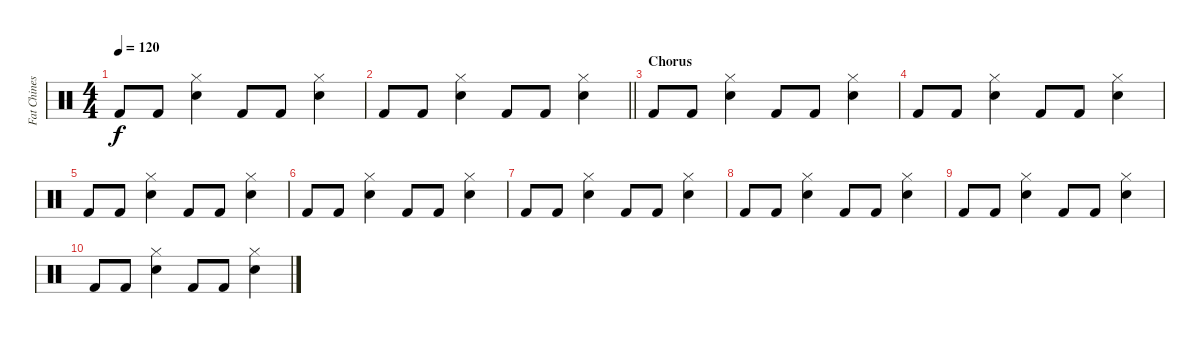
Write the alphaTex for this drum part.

\track ("Fat Chinese Drummer" "Fat Chines") {instrument percussion}
\staff {score}
\articulation defaults
\ts (4 4)
\tempo 120
\clef neutral
\ks c "Kick (hit) 2".8{dy f} "Kick (hit) 2".8
("Hi-Hat (closed)" "Electric Snare (hit)").4 "Kick (hit) 2".8 "Kick (hit) 2".8 ("Hi-Hat (closed)" "Electric Snare (hit)").4 |
\barLineRight lightlight "Kick (hit) 2".8 "Kick (hit) 2".8
("Hi-Hat (closed)" "Electric Snare (hit)").4 "Kick (hit) 2".8 "Kick (hit) 2".8 ("Hi-Hat (closed)" "Electric Snare (hit)").4 |
\section ("" "Chorus")
"Kick (hit) 2".8 "Kick (hit) 2".8 ("Hi-Hat (closed)" "Electric Snare (hit)").4 "Kick (hit) 2".8 "Kick (hit) 2".8 ("Hi-Hat (closed)" "Electric Snare (hit)").4 |
"Kick (hit) 2".8 "Kick (hit) 2".8 ("Hi-Hat (closed)" "Electric Snare (hit)").4 "Kick (hit) 2".8 "Kick (hit) 2".8 ("Hi-Hat (closed)" "Electric Snare (hit)").4 |
"Kick (hit) 2".8 "Kick (hit) 2".8 ("Hi-Hat (closed)" "Electric Snare (hit)").4 "Kick (hit) 2".8 "Kick (hit) 2".8 ("Hi-Hat (closed)" "Electric Snare (hit)").4 |
"Kick (hit) 2".8 "Kick (hit) 2".8 ("Hi-Hat (closed)" "Electric Snare (hit)").4 "Kick (hit) 2".8 "Kick (hit) 2".8 ("Hi-Hat (closed)" "Electric Snare (hit)").4 |
"Kick (hit) 2".8 "Kick (hit) 2".8 ("Hi-Hat (closed)" "Electric Snare (hit)").4 "Kick (hit) 2".8 "Kick (hit) 2".8 ("Hi-Hat (closed)" "Electric Snare (hit)").4 |
"Kick (hit) 2".8 "Kick (hit) 2".8 ("Hi-Hat (closed)" "Electric Snare (hit)").4 "Kick (hit) 2".8 "Kick (hit) 2".8 ("Hi-Hat (closed)" "Electric Snare (hit)").4 |
"Kick (hit) 2".8 "Kick (hit) 2".8 ("Hi-Hat (closed)" "Electric Snare (hit)").4 "Kick (hit) 2".8 "Kick (hit) 2".8 ("Hi-Hat (closed)" "Electric Snare (hit)").4 |
"Kick (hit) 2".8 "Kick (hit) 2".8 ("Hi-Hat (closed)" "Electric Snare (hit)").4 "Kick (hit) 2".8 "Kick (hit) 2".8 ("Hi-Hat (closed)" "Electric Snare (hit)").4
